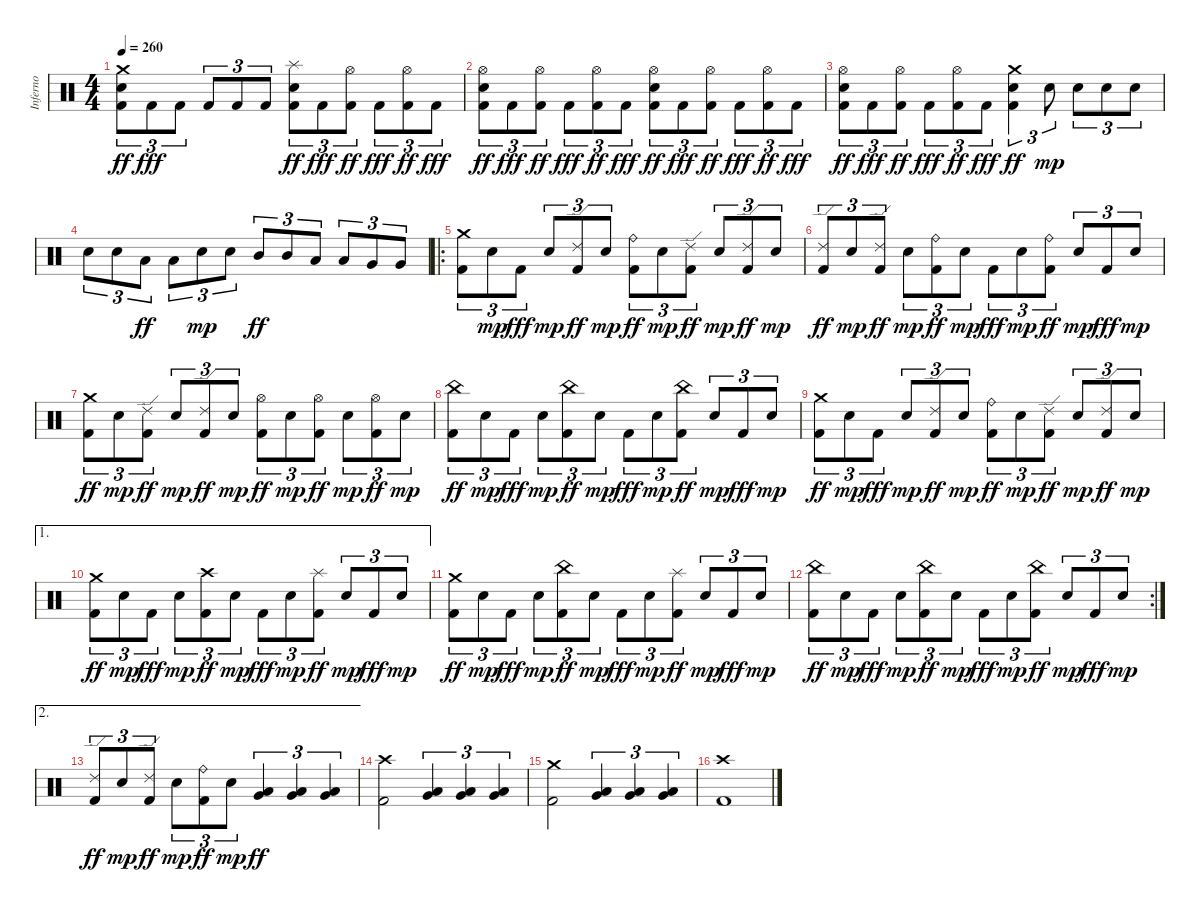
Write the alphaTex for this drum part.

\track ("Inferno" "Inferno") {instrument percussion}
\staff {score}
\articulation defaults
\ts (4 4)
\tempo 260
\clef neutral
\ks c
("Kick (hit) 2" "Electric Snare (hit)" "Crash medium (hit)").8{tu (3 2) dy ff} "Kick (hit) 2".8{tu (3 2) dy fff} "Kick (hit) 2".8{tu (3 2)} "Kick (hit) 2".8{tu (3 2)} "Kick (hit) 2".8{tu (3 2)} "Kick (hit) 2".8{tu (3 2)} ("Kick (hit) 2" "Electric Snare (hit)" "Splash (hit)").8{tu (3 2) dy ff} "Kick (hit) 2".8{tu (3 2) dy fff} ("Kick (hit) 2" "Hi-Hat (open)").8{tu (3 2) dy ff} "Kick (hit) 2".8{tu (3 2) dy fff} ("Kick (hit) 2" "Hi-Hat (open)").8{tu (3 2) dy ff} "Kick (hit) 2".8{tu (3 2) dy fff} |
("Kick (hit) 2" "Electric Snare (hit)" "Hi-Hat (open)").8{tu (3 2) dy ff} "Kick (hit) 2".8{tu (3 2) dy fff} ("Kick (hit) 2" "Hi-Hat (open)").8{tu (3 2) dy ff} "Kick (hit) 2".8{tu (3 2) dy fff} ("Kick (hit) 2" "Hi-Hat (open)").8{tu (3 2) dy ff} "Kick (hit) 2".8{tu (3 2) dy fff} ("Kick (hit) 2" "Electric Snare (hit)" "Hi-Hat (open)").8{tu (3 2) dy ff} "Kick (hit) 2".8{tu (3 2) dy fff} ("Kick (hit) 2" "Hi-Hat (open)").8{tu (3 2) dy ff} "Kick (hit) 2".8{tu (3 2) dy fff} ("Kick (hit) 2" "Hi-Hat (open)").8{tu (3 2) dy ff} "Kick (hit) 2".8{tu (3 2) dy fff} |
("Kick (hit) 2" "Electric Snare (hit)" "Hi-Hat (open)").8{tu (3 2) dy ff} "Kick (hit) 2".8{tu (3 2) dy fff} ("Kick (hit) 2" "Hi-Hat (open)").8{tu (3 2) dy ff} "Kick (hit) 2".8{tu (3 2) dy fff} ("Kick (hit) 2" "Hi-Hat (open)").8{tu (3 2) dy ff} "Kick (hit) 2".8{tu (3 2) dy fff} ("Kick (hit) 2" "Electric Snare (hit)" "Crash medium (hit)").4{tu (3 2) dy ff} "Electric Snare (hit)".8{tu (3 2) dy mp} "Electric Snare (hit)".8{tu (3 2)} "Electric Snare (hit)".8{tu (3 2)} "Electric Snare (hit)".8{tu (3 2)} |
"Electric Snare (hit)".8{tu (3 2)} "Electric Snare (hit)".8{tu (3 2)} "Low Tom (hit)".8{tu (3 2) dy ff} "Low Tom (hit)".8{tu (3 2)} "Electric Snare (hit)".8{tu (3 2) dy mp} "Electric Snare (hit)".8{tu (3 2)} "Mid Tom (hit)".8{tu (3 2) dy ff} "Mid Tom (hit)".8{tu (3 2)} "Low Tom (hit)".8{tu (3 2)} "Low Tom (hit)".8{tu (3 2)} "Very Low Tom (hit)".8{tu (3 2)} "Very Low Tom (hit)".8{tu (3 2)} |
\ro
("Kick (hit) 2" "Crash medium (hit)").8{tu (3 2)} "Electric Snare (hit)".8{tu (3 2) dy mp} "Kick (hit) 2".8{tu (3 2) dy fff} "Electric Snare (hit)".8{tu (3 2) dy mp} ("Kick (hit) 2" "Ride (edge) 2").8{tu (3 2) dy ff} "Electric Snare (hit)".8{tu (3 2) dy mp} ("Kick (hit) 2" "Ride (bell)").8{tu (3 2) dy ff} "Electric Snare (hit)".8{tu (3 2) dy mp} ("Kick (hit) 2" "Ride (edge) 2").8{tu (3 2) dy ff} "Electric Snare (hit)".8{tu (3 2) dy mp} ("Kick (hit) 2" "Ride (edge) 2").8{tu (3 2) dy ff} "Electric Snare (hit)".8{tu (3 2) dy mp} |
("Kick (hit) 2" "Ride (edge) 2").8{tu (3 2) dy ff} "Electric Snare (hit)".8{tu (3 2) dy mp} ("Kick (hit) 2" "Ride (edge) 2").8{tu (3 2) dy ff} "Electric Snare (hit)".8{tu (3 2) dy mp} ("Kick (hit) 2" "Ride (bell)").8{tu (3 2) dy ff} "Electric Snare (hit)".8{tu (3 2) dy mp} "Kick (hit) 2".8{tu (3 2) dy fff} "Electric Snare (hit)".8{tu (3 2) dy mp} ("Kick (hit) 2" "Ride (bell)").8{tu (3 2) dy ff} "Electric Snare (hit)".8{tu (3 2) dy mp} "Kick (hit) 2".8{tu (3 2) dy fff} "Electric Snare (hit)".8{tu (3 2) dy mp} |
("Kick (hit) 2" "Crash medium (hit)").8{tu (3 2) dy ff} "Electric Snare (hit)".8{tu (3 2) dy mp} ("Kick (hit) 2" "Ride (edge) 2").8{tu (3 2) dy ff} "Electric Snare (hit)".8{tu (3 2) dy mp} ("Kick (hit) 2" "Ride (edge) 2").8{tu (3 2) dy ff} "Electric Snare (hit)".8{tu (3 2) dy mp} ("Kick (hit) 2" "Hi-Hat (open)").8{tu (3 2) dy ff} "Electric Snare (hit)".8{tu (3 2) dy mp} ("Kick (hit) 2" "Hi-Hat (open)").8{tu (3 2) dy ff} "Electric Snare (hit)".8{tu (3 2) dy mp} ("Kick (hit) 2" "Hi-Hat (open)").8{tu (3 2) dy ff} "Electric Snare (hit)".8{tu (3 2) dy mp} |
("Kick (hit) 2" "China (hit)").8{tu (3 2) dy ff} "Electric Snare (hit)".8{tu (3 2) dy mp} "Kick (hit) 2".8{tu (3 2) dy fff} "Electric Snare (hit)".8{tu (3 2) dy mp} ("Kick (hit) 2" "China (hit)").8{tu (3 2) dy ff} "Electric Snare (hit)".8{tu (3 2) dy mp} "Kick (hit) 2".8{tu (3 2) dy fff} "Electric Snare (hit)".8{tu (3 2) dy mp} ("Kick (hit) 2" "China (hit)").8{tu (3 2) dy ff} "Electric Snare (hit)".8{tu (3 2) dy mp} "Kick (hit) 2".8{tu (3 2) dy fff} "Electric Snare (hit)".8{tu (3 2) dy mp} |
("Kick (hit) 2" "Crash medium (hit)").8{tu (3 2) dy ff} "Electric Snare (hit)".8{tu (3 2) dy mp} "Kick (hit) 2".8{tu (3 2) dy fff} "Electric Snare (hit)".8{tu (3 2) dy mp} ("Kick (hit) 2" "Ride (edge) 2").8{tu (3 2) dy ff} "Electric Snare (hit)".8{tu (3 2) dy mp} ("Kick (hit) 2" "Ride (bell)").8{tu (3 2) dy ff} "Electric Snare (hit)".8{tu (3 2) dy mp} ("Kick (hit) 2" "Ride (edge) 2").8{tu (3 2) dy ff} "Electric Snare (hit)".8{tu (3 2) dy mp} ("Kick (hit) 2" "Ride (edge) 2").8{tu (3 2) dy ff} "Electric Snare (hit)".8{tu (3 2) dy mp} |
\ae 1
("Kick (hit) 2" "Crash medium (hit)").8{tu (3 2) dy ff} "Electric Snare (hit)".8{tu (3 2) dy mp} "Kick (hit) 2".8{tu (3 2) dy fff} "Electric Snare (hit)".8{tu (3 2) dy mp} ("Kick (hit) 2" "Crash high (hit)").8{tu (3 2) dy ff} "Electric Snare (hit)".8{tu (3 2) dy mp} "Kick (hit) 2".8{tu (3 2) dy fff} "Electric Snare (hit)".8{tu (3 2) dy mp} ("Kick (hit) 2" "Splash (hit)").8{tu (3 2) dy ff} "Electric Snare (hit)".8{tu (3 2) dy mp} "Kick (hit) 2".8{tu (3 2) dy fff} "Electric Snare (hit)".8{tu (3 2) dy mp} |
("Kick (hit) 2" "Crash medium (hit)").8{tu (3 2) dy ff} "Electric Snare (hit)".8{tu (3 2) dy mp} "Kick (hit) 2".8{tu (3 2) dy fff} "Electric Snare (hit)".8{tu (3 2) dy mp} ("Kick (hit) 2" "China (hit)").8{tu (3 2) dy ff} "Electric Snare (hit)".8{tu (3 2) dy mp} "Kick (hit) 2".8{tu (3 2) dy fff} "Electric Snare (hit)".8{tu (3 2) dy mp} ("Kick (hit) 2" "Splash (hit)").8{tu (3 2) dy ff} "Electric Snare (hit)".8{tu (3 2) dy mp} "Kick (hit) 2".8{tu (3 2) dy fff} "Electric Snare (hit)".8{tu (3 2) dy mp} |
\rc 2
("Kick (hit) 2" "China (hit)").8{tu (3 2) dy ff} "Electric Snare (hit)".8{tu (3 2) dy mp} "Kick (hit) 2".8{tu (3 2) dy fff} "Electric Snare (hit)".8{tu (3 2) dy mp} ("Kick (hit) 2" "China (hit)").8{tu (3 2) dy ff} "Electric Snare (hit)".8{tu (3 2) dy mp} "Kick (hit) 2".8{tu (3 2) dy fff} "Electric Snare (hit)".8{tu (3 2) dy mp} ("Kick (hit) 2" "China (hit)").8{tu (3 2) dy ff} "Electric Snare (hit)".8{tu (3 2) dy mp} "Kick (hit) 2".8{tu (3 2) dy fff} "Electric Snare (hit)".8{tu (3 2) dy mp} |
\ae 2
("Kick (hit) 2" "Ride (edge) 2").8{tu (3 2) dy ff} "Electric Snare (hit)".8{tu (3 2) dy mp} ("Kick (hit) 2" "Ride (edge) 2").8{tu (3 2) dy ff} "Electric Snare (hit)".8{tu (3 2) dy mp} ("Kick (hit) 2" "Ride (bell)").8{tu (3 2) dy ff} "Electric Snare (hit)".8{tu (3 2) dy mp} ("Low Tom (hit)" "Very Low Tom (hit)").4{tu (3 2) dy ff} ("Low Tom (hit)" "Very Low Tom (hit)").4{tu (3 2)} ("Low Tom (hit)" "Very Low Tom (hit)").4{tu (3 2)} |
("Kick (hit) 2" "Crash high (hit)").2 ("Low Tom (hit)" "Very Low Tom (hit)").4{tu (3 2)} ("Low Tom (hit)" "Very Low Tom (hit)").4{tu (3 2)} ("Low Tom (hit)" "Very Low Tom (hit)").4{tu (3 2)} |
("Kick (hit) 2" "Crash medium (hit)").2 ("Low Tom (hit)" "Very Low Tom (hit)").4{tu (3 2)} ("Low Tom (hit)" "Very Low Tom (hit)").4{tu (3 2)} ("Low Tom (hit)" "Very Low Tom (hit)").4{tu (3 2)} |
("Kick (hit) 2" "Crash high (hit)").1
